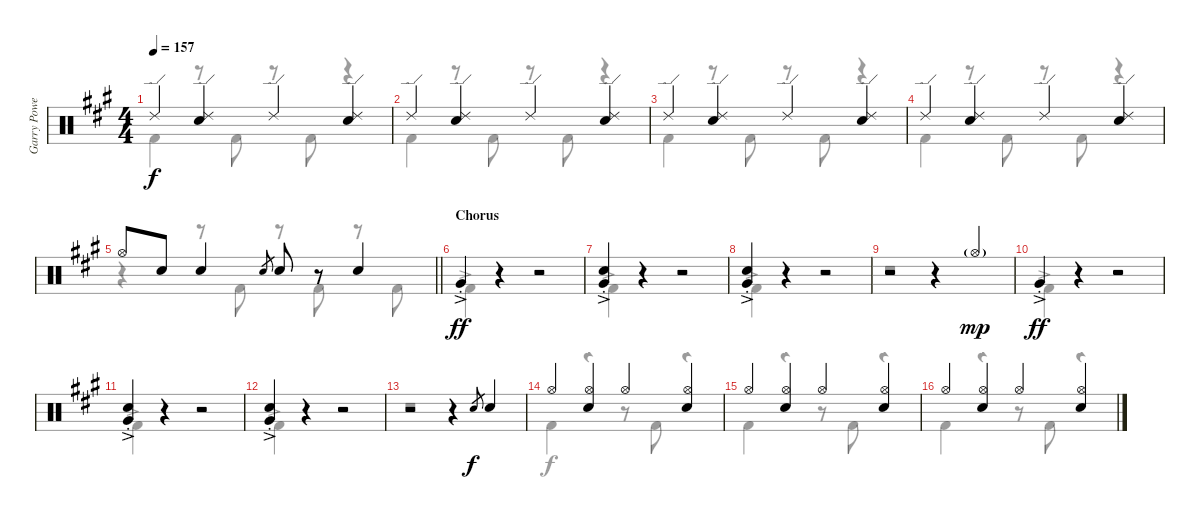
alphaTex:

\track ("Garry Powell" "Garry Powe") {instrument percussion}
\staff {score}
\articulation defaults
\voice
\ts (4 4)
\tempo 157
\clef neutral
\ks a "Ride (edge) 2".4{dy f}
("Ride (edge) 2" "Electric Snare (hit)").4 "Ride (edge) 2".4 ("Ride (edge) 2" "Electric Snare (hit)").4 |
"Ride (edge) 2".4 ("Ride (edge) 2" "Electric Snare (hit)").4 "Ride (edge) 2".4 ("Ride (edge) 2" "Electric Snare (hit)").4 |
"Ride (edge) 2".4 ("Ride (edge) 2" "Electric Snare (hit)").4 "Ride (edge) 2".4 ("Ride (edge) 2" "Electric Snare (hit)").4 |
"Ride (edge) 2".4 ("Ride (edge) 2" "Electric Snare (hit)").4 "Ride (edge) 2".4 ("Ride (edge) 2" "Electric Snare (hit)").4 |
\barLineRight lightlight "Hi-Hat (open)".8 "Electric Snare (hit)".8 "Electric Snare (hit)".4 "Electric Snare (hit)".8{gr} "Electric Snare (hit)".8
r.8 "Electric Snare (hit)".4 |
\section ("" "Chorus")
"Very Low Tom (hit)"{ac st}.4{dy ff} r.4 r.2 |
("Very Low Tom (hit)"{ac st} "Electric Snare (hit)"{ac st}).4 r.4 r.2 |
("Very Low Tom (hit)"{ac st} "Electric Snare (hit)"{ac st}).4 r.4 r.2 |
r.2 r.4 "Hi-Hat (open)"{g}.4{dy mp} |
"Very Low Tom (hit)"{ac st}.4{dy ff} r.4 r.2 |
("Very Low Tom (hit)"{ac st} "Electric Snare (hit)"{ac st}).4 r.4 r.2 |
("Very Low Tom (hit)"{ac st} "Electric Snare (hit)"{ac st}).4 r.4 r.2 |
r.2 r.4 "Electric Snare (hit)".8{gr dy f} "Electric Snare (hit)".4 |
"Hi-Hat (open)".4 ("Hi-Hat (open)" "Electric Snare (hit)").4 "Hi-Hat (open)".4 ("Hi-Hat (open)" "Electric Snare (hit)").4 |
"Hi-Hat (open)".4 ("Hi-Hat (open)" "Electric Snare (hit)").4 "Hi-Hat (open)".4 ("Hi-Hat (open)" "Electric Snare (hit)").4 |
"Hi-Hat (open)".4 ("Hi-Hat (open)" "Electric Snare (hit)").4 "Hi-Hat (open)".4 ("Hi-Hat (open)" "Electric Snare (hit)").4
\voice
\clef neutral
\ottava regular
\simile none
\ks a "Kick (hit) 2".4{dy f}
r.8 "Kick (hit) 2".8 r.8 "Kick (hit) 2".8 r.4 |
"Kick (hit) 2".4 r.8 "Kick (hit) 2".8 r.8 "Kick (hit) 2".8 r.4 |
"Kick (hit) 2".4 r.8 "Kick (hit) 2".8 r.8 "Kick (hit) 2".8 r.4 |
"Kick (hit) 2".4 r.8 "Kick (hit) 2".8 r.8 "Kick (hit) 2".8 r.4 |
\barLineRight lightlight
r.4 r.8 "Kick (hit) 2".8 r.8 "Kick (hit) 2".8 r.8 "Kick (hit) 2".8 |
"Kick (hit) 2"{ac st}.4{dy ff} r.4 r.2 |
"Kick (hit) 2"{ac st}.4 r.4 r.2 |
"Kick (hit) 2"{ac st}.4 r.4 r.2 |
r.1 |
"Kick (hit) 2"{ac st}.4 r.4 r.2 |
"Kick (hit) 2"{ac st}.4 r.4 r.2 |
"Kick (hit) 2"{ac st}.4 r.4 r.2 |
r.1 |
"Kick (hit) 2".4{dy f} r.4 r.8 "Kick (hit) 2".8 r.4 |
"Kick (hit) 2".4 r.4 r.8 "Kick (hit) 2".8 r.4 |
"Kick (hit) 2".4 r.4 r.8 "Kick (hit) 2".8 r.4
